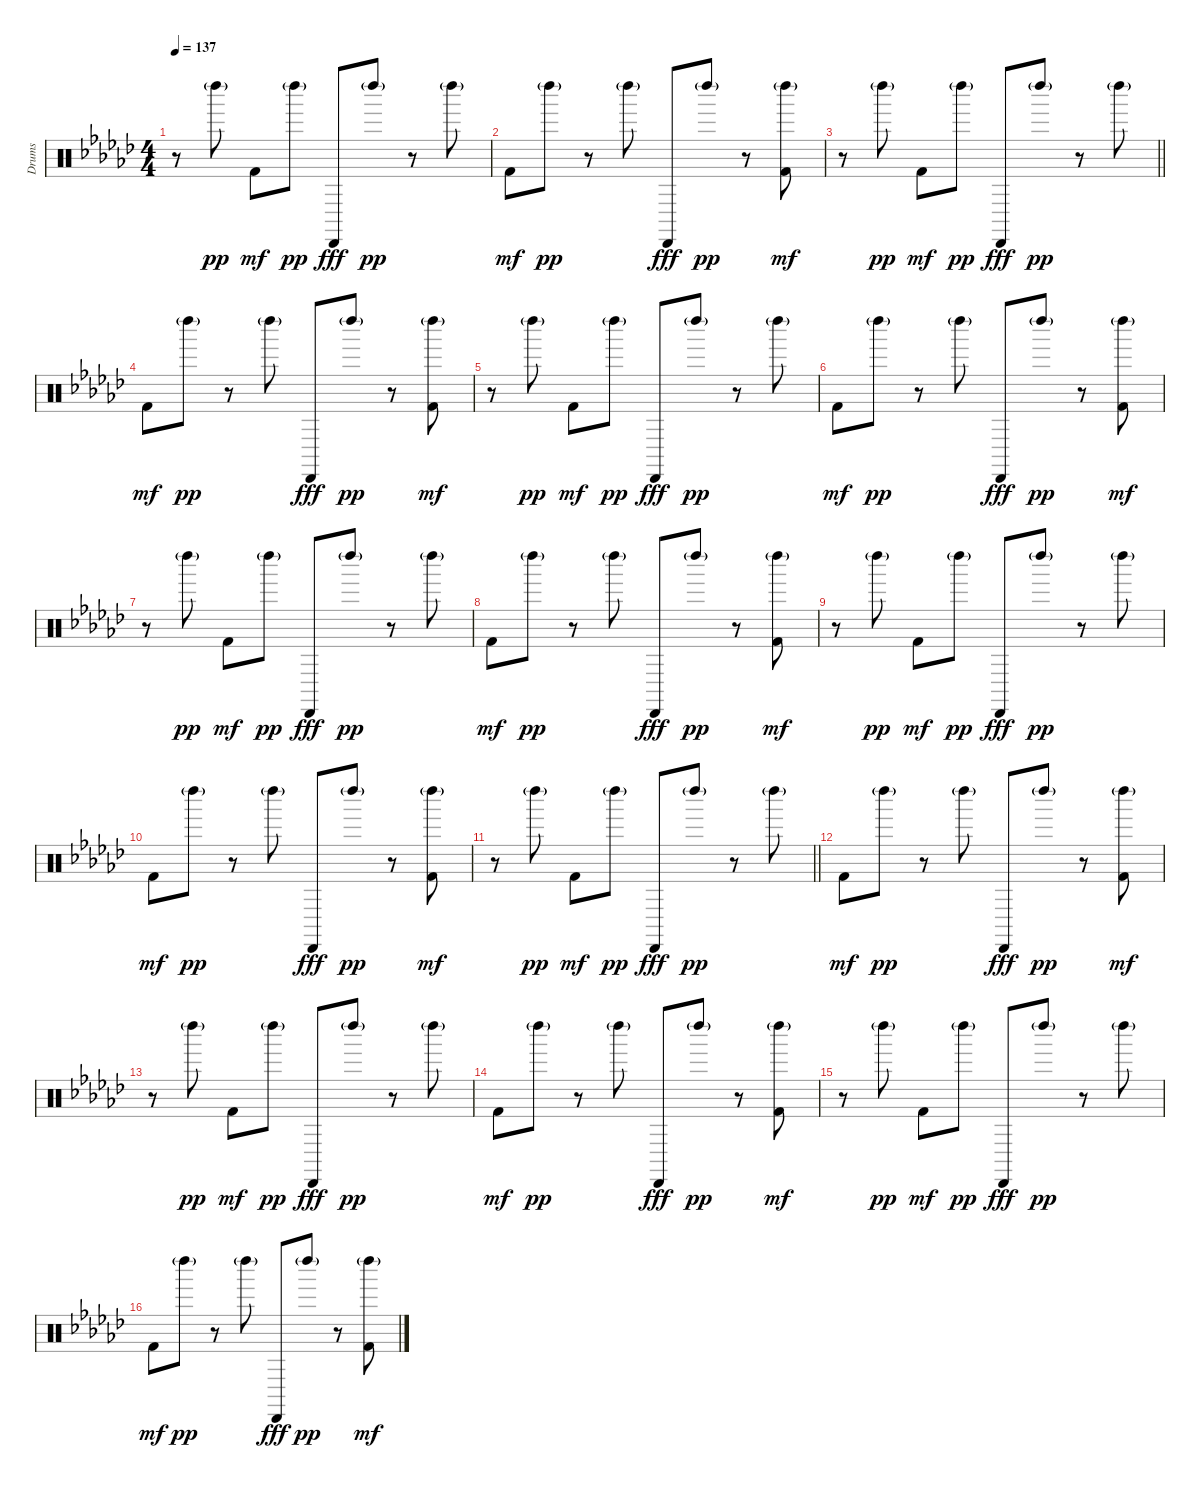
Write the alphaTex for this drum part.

\track ("Drums" "Drums") {instrument percussion}
\staff
\articulation defaults
\ts (4 4)
\tempo 137
\clef neutral
\ks ebminor
r.8{dy mf} "Left Maraca (hit)"{g}.8{dy pp} "Kick (hit) 2".8{dy mf} "Left Maraca (hit)"{g}.8{dy pp} "Cabasa (hit)".8{dy fff} "Left Maraca (hit)"{g}.8{dy pp} r.8 "Left Maraca (hit)"{g}.8 |
"Kick (hit) 2".8{dy mf} "Left Maraca (hit)"{g}.8{dy pp} r.8 "Left Maraca (hit)"{g}.8 "Cabasa (hit)".8{dy fff} "Left Maraca (hit)"{g}.8{dy pp} r.8 ("Left Maraca (hit)"{g} "Kick (hit) 2").8{dy mf} |
\barLineRight lightlight
r.8 "Left Maraca (hit)"{g}.8{dy pp} "Kick (hit) 2".8{dy mf} "Left Maraca (hit)"{g}.8{dy pp} "Cabasa (hit)".8{dy fff} "Left Maraca (hit)"{g}.8{dy pp} r.8 "Left Maraca (hit)"{g}.8 |
"Kick (hit) 2".8{dy mf} "Left Maraca (hit)"{g}.8{dy pp} r.8 "Left Maraca (hit)"{g}.8 "Cabasa (hit)".8{dy fff} "Left Maraca (hit)"{g}.8{dy pp} r.8 ("Left Maraca (hit)"{g} "Kick (hit) 2").8{dy mf} |
r.8 "Left Maraca (hit)"{g}.8{dy pp} "Kick (hit) 2".8{dy mf} "Left Maraca (hit)"{g}.8{dy pp} "Cabasa (hit)".8{dy fff} "Left Maraca (hit)"{g}.8{dy pp} r.8 "Left Maraca (hit)"{g}.8 |
"Kick (hit) 2".8{dy mf} "Left Maraca (hit)"{g}.8{dy pp} r.8 "Left Maraca (hit)"{g}.8 "Cabasa (hit)".8{dy fff} "Left Maraca (hit)"{g}.8{dy pp} r.8 ("Left Maraca (hit)"{g} "Kick (hit) 2").8{dy mf} |
r.8 "Left Maraca (hit)"{g}.8{dy pp} "Kick (hit) 2".8{dy mf} "Left Maraca (hit)"{g}.8{dy pp} "Cabasa (hit)".8{dy fff} "Left Maraca (hit)"{g}.8{dy pp} r.8 "Left Maraca (hit)"{g}.8 |
"Kick (hit) 2".8{dy mf} "Left Maraca (hit)"{g}.8{dy pp} r.8 "Left Maraca (hit)"{g}.8 "Cabasa (hit)".8{dy fff} "Left Maraca (hit)"{g}.8{dy pp} r.8 ("Left Maraca (hit)"{g} "Kick (hit) 2").8{dy mf} |
r.8 "Left Maraca (hit)"{g}.8{dy pp} "Kick (hit) 2".8{dy mf} "Left Maraca (hit)"{g}.8{dy pp} "Cabasa (hit)".8{dy fff} "Left Maraca (hit)"{g}.8{dy pp} r.8 "Left Maraca (hit)"{g}.8 |
"Kick (hit) 2".8{dy mf} "Left Maraca (hit)"{g}.8{dy pp} r.8 "Left Maraca (hit)"{g}.8 "Cabasa (hit)".8{dy fff} "Left Maraca (hit)"{g}.8{dy pp} r.8 ("Left Maraca (hit)"{g} "Kick (hit) 2").8{dy mf} |
\barLineRight lightlight
r.8 "Left Maraca (hit)"{g}.8{dy pp} "Kick (hit) 2".8{dy mf} "Left Maraca (hit)"{g}.8{dy pp} "Cabasa (hit)".8{dy fff} "Left Maraca (hit)"{g}.8{dy pp} r.8 "Left Maraca (hit)"{g}.8 |
"Kick (hit) 2".8{dy mf volume 11} "Left Maraca (hit)"{g}.8{dy pp} r.8 "Left Maraca (hit)"{g}.8 "Cabasa (hit)".8{dy fff} "Left Maraca (hit)"{g}.8{dy pp} r.8 ("Left Maraca (hit)"{g} "Kick (hit) 2").8{dy mf} |
r.8 "Left Maraca (hit)"{g}.8{dy pp} "Kick (hit) 2".8{dy mf} "Left Maraca (hit)"{g}.8{dy pp} "Cabasa (hit)".8{dy fff} "Left Maraca (hit)"{g}.8{dy pp} r.8 "Left Maraca (hit)"{g}.8 |
"Kick (hit) 2".8{dy mf} "Left Maraca (hit)"{g}.8{dy pp} r.8 "Left Maraca (hit)"{g}.8 "Cabasa (hit)".8{dy fff} "Left Maraca (hit)"{g}.8{dy pp} r.8 ("Left Maraca (hit)"{g} "Kick (hit) 2").8{dy mf} |
r.8 "Left Maraca (hit)"{g}.8{dy pp} "Kick (hit) 2".8{dy mf} "Left Maraca (hit)"{g}.8{dy pp} "Cabasa (hit)".8{dy fff} "Left Maraca (hit)"{g}.8{dy pp} r.8 "Left Maraca (hit)"{g}.8 |
"Kick (hit) 2".8{dy mf volume 7} "Left Maraca (hit)"{g}.8{dy pp} r.8 "Left Maraca (hit)"{g}.8 "Cabasa (hit)".8{dy fff} "Left Maraca (hit)"{g}.8{dy pp} r.8 ("Left Maraca (hit)"{g} "Kick (hit) 2").8{dy mf}
